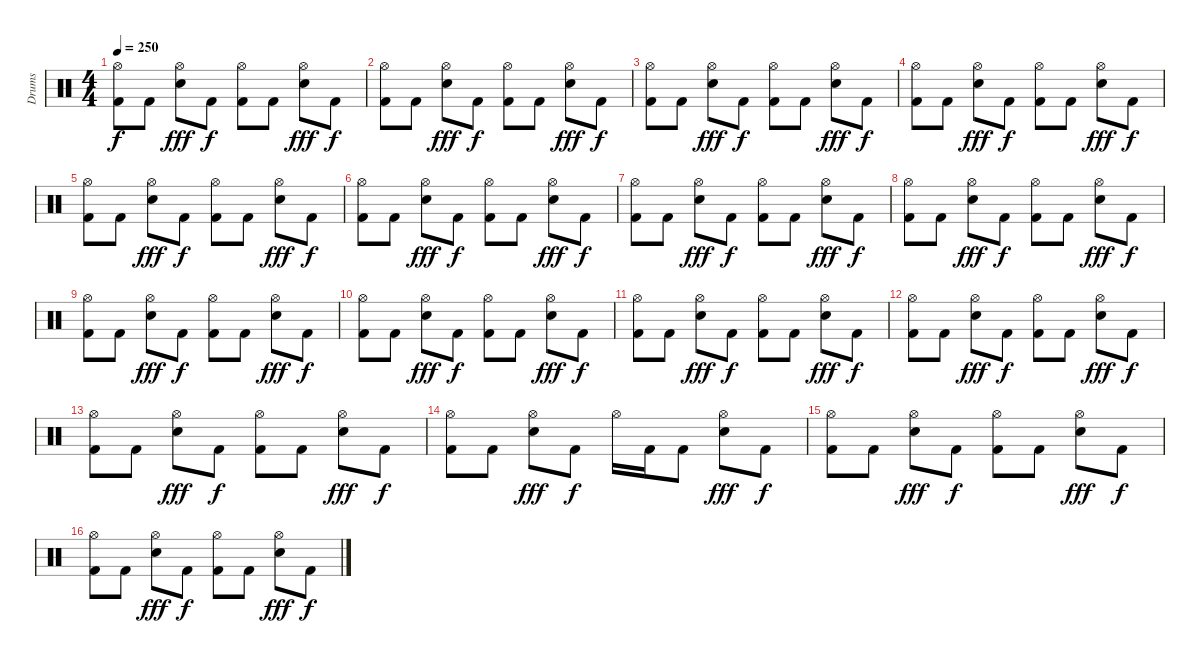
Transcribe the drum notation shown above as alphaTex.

\track ("Drums" "Drums") {instrument percussion}
\staff {score}
\articulation defaults
\ts (4 4)
\tempo 250
\clef neutral
\ks c
("Kick (hit) 2" "Hi-Hat (open)").8{dy f} "Kick (hit) 2".8 ("Hi-Hat (open)" "Snare (hit) 2").8{dy fff} "Kick (hit) 2".8{dy f} ("Hi-Hat (open)" "Kick (hit) 2").8 "Kick (hit) 2".8 ("Hi-Hat (open)" "Snare (hit) 2").8{dy fff} "Kick (hit) 2".8{dy f} |
("Kick (hit) 2" "Hi-Hat (open)").8 "Kick (hit) 2".8 ("Hi-Hat (open)" "Snare (hit) 2").8{dy fff} "Kick (hit) 2".8{dy f} ("Hi-Hat (open)" "Kick (hit) 2").8 "Kick (hit) 2".8 ("Hi-Hat (open)" "Snare (hit) 2").8{dy fff} "Kick (hit) 2".8{dy f} |
("Kick (hit) 2" "Hi-Hat (open)").8 "Kick (hit) 2".8 ("Hi-Hat (open)" "Snare (hit) 2").8{dy fff} "Kick (hit) 2".8{dy f} ("Hi-Hat (open)" "Kick (hit) 2").8 "Kick (hit) 2".8 ("Hi-Hat (open)" "Snare (hit) 2").8{dy fff} "Kick (hit) 2".8{dy f} |
("Kick (hit) 2" "Hi-Hat (open)").8 "Kick (hit) 2".8 ("Hi-Hat (open)" "Snare (hit) 2").8{dy fff} "Kick (hit) 2".8{dy f} ("Hi-Hat (open)" "Kick (hit) 2").8 "Kick (hit) 2".8 ("Hi-Hat (open)" "Snare (hit) 2").8{dy fff} "Kick (hit) 2".8{dy f} |
("Kick (hit) 2" "Hi-Hat (open)").8 "Kick (hit) 2".8 ("Hi-Hat (open)" "Snare (hit) 2").8{dy fff} "Kick (hit) 2".8{dy f} ("Hi-Hat (open)" "Kick (hit) 2").8 "Kick (hit) 2".8 ("Hi-Hat (open)" "Snare (hit) 2").8{dy fff} "Kick (hit) 2".8{dy f} |
("Kick (hit) 2" "Hi-Hat (open)").8 "Kick (hit) 2".8 ("Hi-Hat (open)" "Snare (hit) 2").8{dy fff} "Kick (hit) 2".8{dy f} ("Hi-Hat (open)" "Kick (hit) 2").8 "Kick (hit) 2".8 ("Hi-Hat (open)" "Snare (hit) 2").8{dy fff} "Kick (hit) 2".8{dy f} |
("Kick (hit) 2" "Hi-Hat (open)").8 "Kick (hit) 2".8 ("Hi-Hat (open)" "Snare (hit) 2").8{dy fff} "Kick (hit) 2".8{dy f} ("Hi-Hat (open)" "Kick (hit) 2").8 "Kick (hit) 2".8 ("Hi-Hat (open)" "Snare (hit) 2").8{dy fff} "Kick (hit) 2".8{dy f} |
("Kick (hit) 2" "Hi-Hat (open)").8 "Kick (hit) 2".8 ("Hi-Hat (open)" "Snare (hit) 2").8{dy fff} "Kick (hit) 2".8{dy f} ("Hi-Hat (open)" "Kick (hit) 2").8 "Kick (hit) 2".8 ("Hi-Hat (open)" "Snare (hit) 2").8{dy fff} "Kick (hit) 2".8{dy f} |
("Kick (hit) 2" "Hi-Hat (open)").8 "Kick (hit) 2".8 ("Hi-Hat (open)" "Snare (hit) 2").8{dy fff} "Kick (hit) 2".8{dy f} ("Hi-Hat (open)" "Kick (hit) 2").8 "Kick (hit) 2".8 ("Hi-Hat (open)" "Snare (hit) 2").8{dy fff} "Kick (hit) 2".8{dy f} |
("Kick (hit) 2" "Hi-Hat (open)").8 "Kick (hit) 2".8 ("Hi-Hat (open)" "Snare (hit) 2").8{dy fff} "Kick (hit) 2".8{dy f} ("Hi-Hat (open)" "Kick (hit) 2").8 "Kick (hit) 2".8 ("Hi-Hat (open)" "Snare (hit) 2").8{dy fff} "Kick (hit) 2".8{dy f} |
("Kick (hit) 2" "Hi-Hat (open)").8 "Kick (hit) 2".8 ("Hi-Hat (open)" "Snare (hit) 2").8{dy fff} "Kick (hit) 2".8{dy f} ("Hi-Hat (open)" "Kick (hit) 2").8 "Kick (hit) 2".8 ("Hi-Hat (open)" "Snare (hit) 2").8{dy fff} "Kick (hit) 2".8{dy f} |
("Kick (hit) 2" "Hi-Hat (open)").8 "Kick (hit) 2".8 ("Hi-Hat (open)" "Snare (hit) 2").8{dy fff} "Kick (hit) 2".8{dy f} ("Hi-Hat (open)" "Kick (hit) 2").8 "Kick (hit) 2".8 ("Hi-Hat (open)" "Snare (hit) 2").8{dy fff} "Kick (hit) 2".8{dy f} |
("Kick (hit) 2" "Hi-Hat (open)").8 "Kick (hit) 2".8 ("Hi-Hat (open)" "Snare (hit) 2").8{dy fff} "Kick (hit) 2".8{dy f} ("Hi-Hat (open)" "Kick (hit) 2").8 "Kick (hit) 2".8 ("Hi-Hat (open)" "Snare (hit) 2").8{dy fff} "Kick (hit) 2".8{dy f} |
("Hi-Hat (open)" "Kick (hit) 2").8 "Kick (hit) 2".8 ("Hi-Hat (open)" "Snare (hit) 2").8{dy fff} "Kick (hit) 2".8{dy f} "Hi-Hat (open)".16 "Kick (hit) 2".16 "Kick (hit) 2".8 ("Hi-Hat (open)" "Snare (hit) 2").8{dy fff} "Kick (hit) 2".8{dy f} |
("Kick (hit) 2" "Hi-Hat (open)").8 "Kick (hit) 2".8 ("Hi-Hat (open)" "Snare (hit) 2").8{dy fff} "Kick (hit) 2".8{dy f} ("Hi-Hat (open)" "Kick (hit) 2").8 "Kick (hit) 2".8 ("Hi-Hat (open)" "Snare (hit) 2").8{dy fff} "Kick (hit) 2".8{dy f} |
("Kick (hit) 2" "Hi-Hat (open)").8 "Kick (hit) 2".8 ("Hi-Hat (open)" "Snare (hit) 2").8{dy fff} "Kick (hit) 2".8{dy f} ("Hi-Hat (open)" "Kick (hit) 2").8 "Kick (hit) 2".8 ("Hi-Hat (open)" "Snare (hit) 2").8{dy fff} "Kick (hit) 2".8{dy f}
